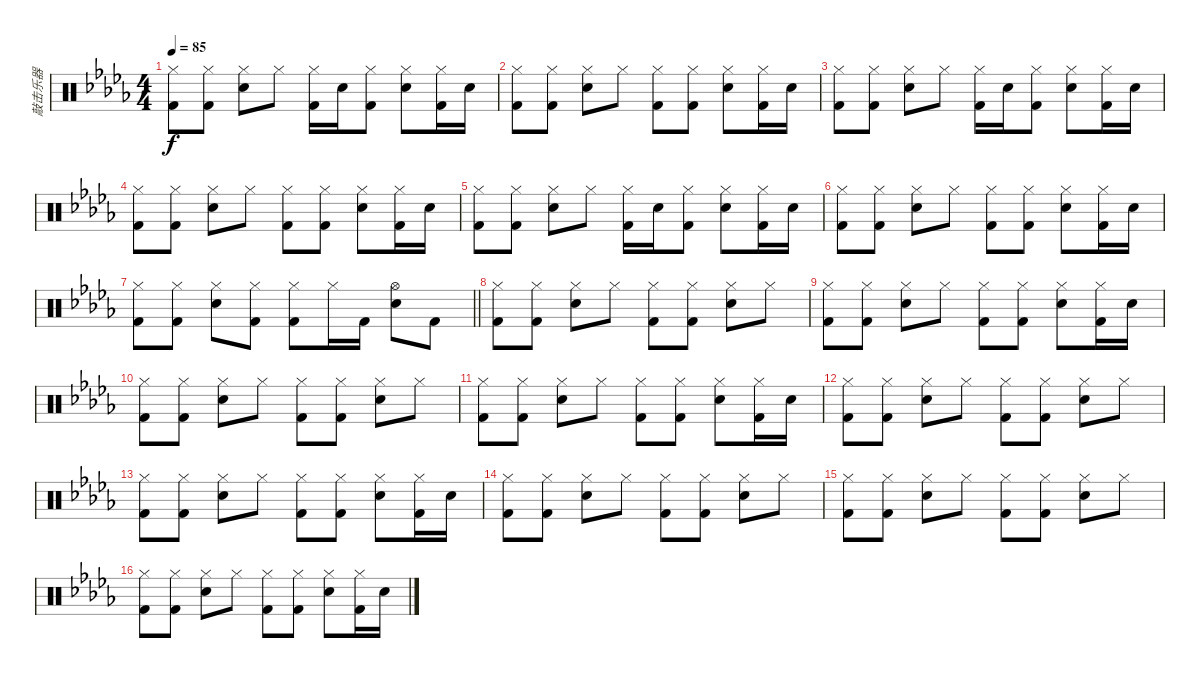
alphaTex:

\track ("敲击乐器" "敲击乐器") {instrument percussion}
\staff {score}
\articulation defaults
\ts (4 4)
\tempo 85
\clef neutral
\ks db
("Hi-Hat (closed)" "Kick (hit) 2").8{dy f} ("Hi-Hat (closed)" "Kick (hit) 2").8 ("Hi-Hat (closed)" "Electric Snare (hit)").8 "Hi-Hat (closed)".8 ("Hi-Hat (closed)" "Kick (hit) 2").16 "Electric Snare (hit)".16 ("Hi-Hat (closed)" "Kick (hit) 2").8 ("Hi-Hat (closed)" "Electric Snare (hit)").8 ("Hi-Hat (closed)" "Kick (hit) 2").16 "Electric Snare (hit)".16 |
("Hi-Hat (closed)" "Kick (hit) 2").8 ("Hi-Hat (closed)" "Kick (hit) 2").8 ("Hi-Hat (closed)" "Electric Snare (hit)").8 "Hi-Hat (closed)".8 ("Hi-Hat (closed)" "Kick (hit) 2").8 ("Hi-Hat (closed)" "Kick (hit) 2").8 ("Hi-Hat (closed)" "Electric Snare (hit)").8 ("Hi-Hat (closed)" "Kick (hit) 2").16 "Electric Snare (hit)".16 |
("Hi-Hat (closed)" "Kick (hit) 2").8 ("Hi-Hat (closed)" "Kick (hit) 2").8 ("Hi-Hat (closed)" "Electric Snare (hit)").8 "Hi-Hat (closed)".8 ("Hi-Hat (closed)" "Kick (hit) 2").16 "Electric Snare (hit)".16 ("Hi-Hat (closed)" "Kick (hit) 2").8 ("Hi-Hat (closed)" "Electric Snare (hit)").8 ("Hi-Hat (closed)" "Kick (hit) 2").16 "Electric Snare (hit)".16 |
("Hi-Hat (closed)" "Kick (hit) 2").8 ("Hi-Hat (closed)" "Kick (hit) 2").8 ("Hi-Hat (closed)" "Electric Snare (hit)").8 "Hi-Hat (closed)".8 ("Hi-Hat (closed)" "Kick (hit) 2").8 ("Hi-Hat (closed)" "Kick (hit) 2").8 ("Hi-Hat (closed)" "Electric Snare (hit)").8 ("Hi-Hat (closed)" "Kick (hit) 2").16 "Electric Snare (hit)".16 |
("Hi-Hat (closed)" "Kick (hit) 2").8 ("Hi-Hat (closed)" "Kick (hit) 2").8 ("Hi-Hat (closed)" "Electric Snare (hit)").8 "Hi-Hat (closed)".8 ("Hi-Hat (closed)" "Kick (hit) 2").16 "Electric Snare (hit)".16 ("Hi-Hat (closed)" "Kick (hit) 2").8 ("Hi-Hat (closed)" "Electric Snare (hit)").8 ("Hi-Hat (closed)" "Kick (hit) 2").16 "Electric Snare (hit)".16 |
("Hi-Hat (closed)" "Kick (hit) 2").8 ("Hi-Hat (closed)" "Kick (hit) 2").8 ("Hi-Hat (closed)" "Electric Snare (hit)").8 "Hi-Hat (closed)".8 ("Hi-Hat (closed)" "Kick (hit) 2").8 ("Hi-Hat (closed)" "Kick (hit) 2").8 ("Hi-Hat (closed)" "Electric Snare (hit)").8 ("Hi-Hat (closed)" "Kick (hit) 2").16 "Electric Snare (hit)".16 |
\barLineRight lightlight
("Hi-Hat (closed)" "Kick (hit) 2").8 ("Hi-Hat (closed)" "Kick (hit) 2").8 ("Hi-Hat (closed)" "Electric Snare (hit)").8 ("Hi-Hat (closed)" "Kick (hit) 2").8 ("Hi-Hat (closed)" "Kick (hit) 2").8 "Hi-Hat (closed)".16 "Kick (hit) 2".16 ("Hi-Hat (open)" "Electric Snare (hit)").8 "Kick (hit) 2".8 |
("Hi-Hat (closed)" "Kick (hit) 2").8 ("Hi-Hat (closed)" "Kick (hit) 2").8 ("Hi-Hat (closed)" "Electric Snare (hit)").8 "Hi-Hat (closed)".8 ("Hi-Hat (closed)" "Kick (hit) 2").8 ("Hi-Hat (closed)" "Kick (hit) 2").8 ("Hi-Hat (closed)" "Electric Snare (hit)").8 "Hi-Hat (closed)".8 |
("Hi-Hat (closed)" "Kick (hit) 2").8 ("Hi-Hat (closed)" "Kick (hit) 2").8 ("Hi-Hat (closed)" "Electric Snare (hit)").8 "Hi-Hat (closed)".8 ("Hi-Hat (closed)" "Kick (hit) 2").8 ("Hi-Hat (closed)" "Kick (hit) 2").8 ("Hi-Hat (closed)" "Electric Snare (hit)").8 ("Hi-Hat (closed)" "Kick (hit) 2").16 "Electric Snare (hit)".16 |
("Hi-Hat (closed)" "Kick (hit) 2").8 ("Hi-Hat (closed)" "Kick (hit) 2").8 ("Hi-Hat (closed)" "Electric Snare (hit)").8 "Hi-Hat (closed)".8 ("Hi-Hat (closed)" "Kick (hit) 2").8 ("Hi-Hat (closed)" "Kick (hit) 2").8 ("Hi-Hat (closed)" "Electric Snare (hit)").8 "Hi-Hat (closed)".8 |
("Hi-Hat (closed)" "Kick (hit) 2").8 ("Hi-Hat (closed)" "Kick (hit) 2").8 ("Hi-Hat (closed)" "Electric Snare (hit)").8 "Hi-Hat (closed)".8 ("Hi-Hat (closed)" "Kick (hit) 2").8 ("Hi-Hat (closed)" "Kick (hit) 2").8 ("Hi-Hat (closed)" "Electric Snare (hit)").8 ("Hi-Hat (closed)" "Kick (hit) 2").16 "Electric Snare (hit)".16 |
("Hi-Hat (closed)" "Kick (hit) 2").8 ("Hi-Hat (closed)" "Kick (hit) 2").8 ("Hi-Hat (closed)" "Electric Snare (hit)").8 "Hi-Hat (closed)".8 ("Hi-Hat (closed)" "Kick (hit) 2").8 ("Hi-Hat (closed)" "Kick (hit) 2").8 ("Hi-Hat (closed)" "Electric Snare (hit)").8 "Hi-Hat (closed)".8 |
("Hi-Hat (closed)" "Kick (hit) 2").8 ("Hi-Hat (closed)" "Kick (hit) 2").8 ("Hi-Hat (closed)" "Electric Snare (hit)").8 "Hi-Hat (closed)".8 ("Hi-Hat (closed)" "Kick (hit) 2").8 ("Hi-Hat (closed)" "Kick (hit) 2").8 ("Hi-Hat (closed)" "Electric Snare (hit)").8 ("Hi-Hat (closed)" "Kick (hit) 2").16 "Electric Snare (hit)".16 |
("Hi-Hat (closed)" "Kick (hit) 2").8 ("Hi-Hat (closed)" "Kick (hit) 2").8 ("Hi-Hat (closed)" "Electric Snare (hit)").8 "Hi-Hat (closed)".8 ("Hi-Hat (closed)" "Kick (hit) 2").8 ("Hi-Hat (closed)" "Kick (hit) 2").8 ("Hi-Hat (closed)" "Electric Snare (hit)").8 "Hi-Hat (closed)".8 |
("Hi-Hat (closed)" "Kick (hit) 2").8 ("Hi-Hat (closed)" "Kick (hit) 2").8 ("Hi-Hat (closed)" "Electric Snare (hit)").8 "Hi-Hat (closed)".8 ("Hi-Hat (closed)" "Kick (hit) 2").8 ("Hi-Hat (closed)" "Kick (hit) 2").8 ("Hi-Hat (closed)" "Electric Snare (hit)").8 "Hi-Hat (closed)".8 |
("Hi-Hat (closed)" "Kick (hit) 2").8 ("Hi-Hat (closed)" "Kick (hit) 2").8 ("Hi-Hat (closed)" "Electric Snare (hit)").8 "Hi-Hat (closed)".8 ("Hi-Hat (closed)" "Kick (hit) 2").8 ("Hi-Hat (closed)" "Kick (hit) 2").8 ("Hi-Hat (closed)" "Electric Snare (hit)").8 ("Hi-Hat (closed)" "Kick (hit) 2").16 "Electric Snare (hit)".16
